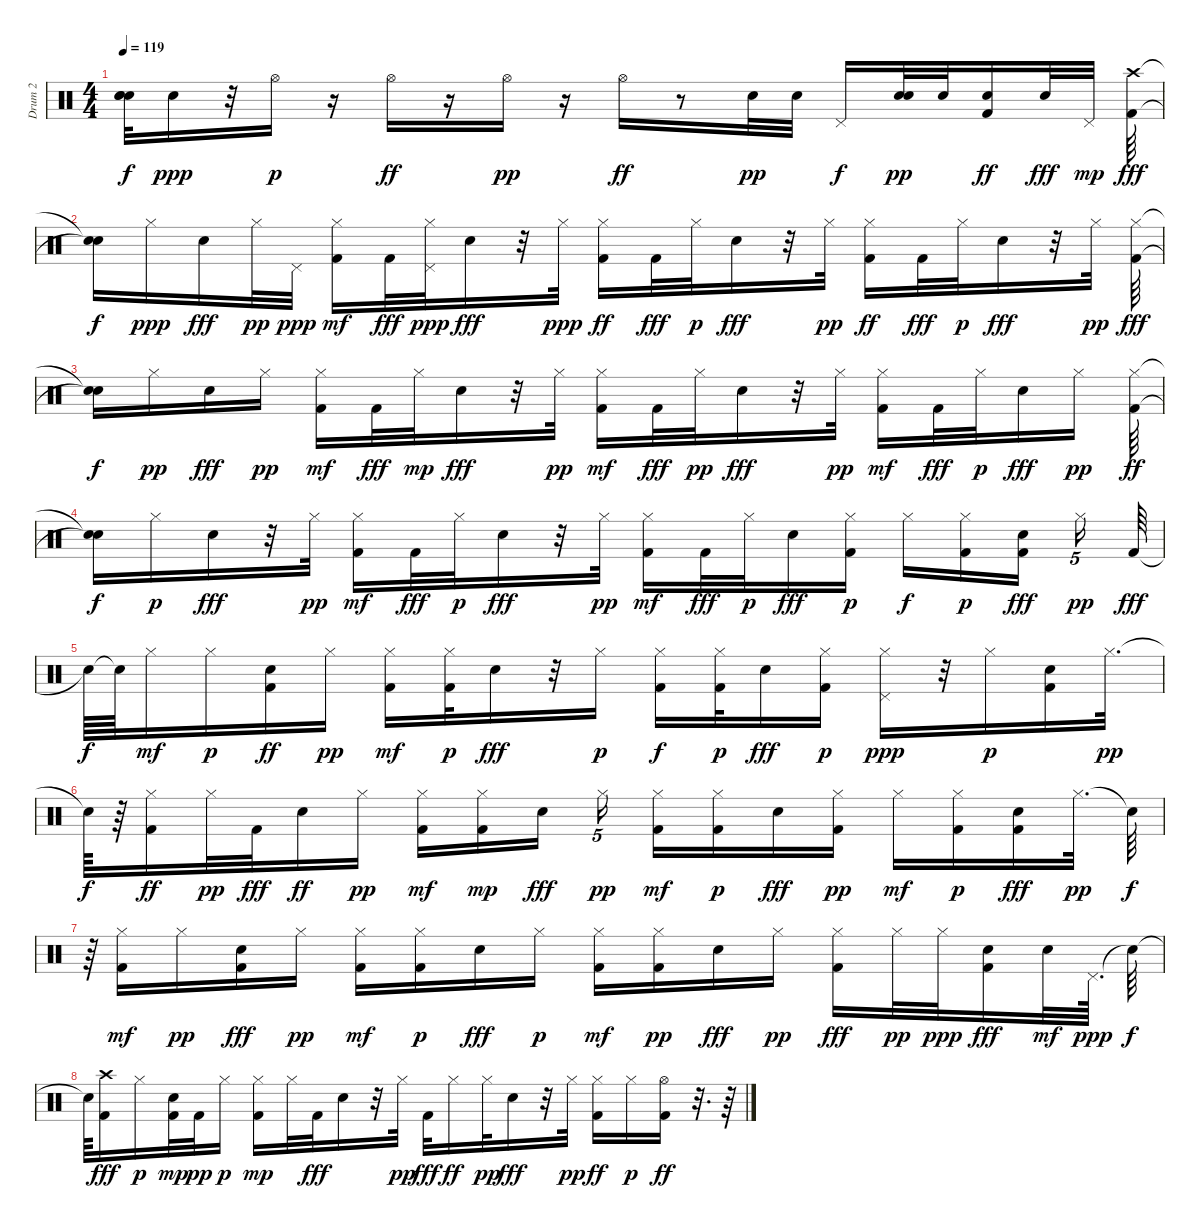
\track ("Drum 2                          " "Drum 2    ") {instrument percussion}
\staff {score}
\articulation defaults
\ts (4 4)
\tempo 119
\clef neutral
\ks c
("Snare (hit)"{t} "Snare (hit)"{t} "Snare (hit)"{t}).32{dy f} "Snare (hit) 2".16{dy ppp} r.32 "Hi-Hat (open)".16{dy p} r.16 "Hi-Hat (open)".16{dy ff} r.16 "Hi-Hat (open)".16{dy pp} r.16 "Hi-Hat (open)".16{dy ff} r.8 "Snare (hit) 2".32{dy pp} "Snare (hit) 2".32 "Pedal Hi-Hat (hit)".16{dy f} ("Snare (hit) 2" "Snare (hit) 2").32{dy pp} "Snare (hit) 2".32 ("Kick (hit) 2" "Snare (hit) 2").16{dy ff} "Snare (hit) 2".32{dy fff} "Pedal Hi-Hat (hit)".32{dy mp} ("Kick (hit) 2" "Crash high (hit)").64{dy fff} |
("Snare (hit)"{t} "Snare (hit)"{t}).16{dy f} "Hi-Hat (closed)".16{dy ppp} "Snare (hit) 2".16{dy fff} "Hi-Hat (closed)".32{dy pp} "Pedal Hi-Hat (hit)".32{dy ppp} ("Kick (hit) 2" "Hi-Hat (closed)").16{dy mf} "Kick (hit) 2".32{dy fff} ("Hi-Hat (closed)" "Pedal Hi-Hat (hit)").32{dy ppp} "Snare (hit) 2".16{dy fff} r.32 "Hi-Hat (closed)".32{dy ppp} ("Kick (hit) 2" "Hi-Hat (closed)").16{dy ff} "Kick (hit) 2".32{dy fff} "Hi-Hat (closed)".32{dy p} "Snare (hit) 2".16{dy fff} r.32 "Hi-Hat (closed)".32{dy pp} ("Kick (hit) 2" "Hi-Hat (closed)").16{dy ff} "Kick (hit) 2".32{dy fff} "Hi-Hat (closed)".32{dy p} "Snare (hit) 2".16{dy fff} r.32 "Hi-Hat (closed)".32{dy pp} ("Kick (hit) 2" "Hi-Hat (closed)").64{dy fff} |
("Snare (hit)"{t} "Snare (hit)"{t}).16{dy f} "Hi-Hat (closed)".16{dy pp} "Snare (hit) 2".16{dy fff} "Hi-Hat (closed)".16{dy pp} ("Kick (hit) 2" "Hi-Hat (closed)").16{dy mf} "Kick (hit) 2".32{dy fff} "Hi-Hat (closed)".32{dy mp} "Snare (hit) 2".16{dy fff} r.32 "Hi-Hat (closed)".32{dy pp} ("Kick (hit) 2" "Hi-Hat (closed)").16{dy mf} "Kick (hit) 2".32{dy fff} "Hi-Hat (closed)".32{dy pp} "Snare (hit) 2".16{dy fff} r.32 "Hi-Hat (closed)".32{dy pp} ("Kick (hit) 2" "Hi-Hat (closed)").16{dy mf} "Kick (hit) 2".32{dy fff} "Hi-Hat (closed)".32{dy p} "Snare (hit) 2".16{dy fff} "Hi-Hat (closed)".16{dy pp} ("Kick (hit) 2" "Hi-Hat (closed)").64{dy ff} |
("Snare (hit)"{t} "Snare (hit)"{t}).16{dy f} "Hi-Hat (closed)".16{dy p} "Snare (hit) 2".16{dy fff} r.32 "Hi-Hat (closed)".32{dy pp} ("Kick (hit) 2" "Hi-Hat (closed)").16{dy mf} "Kick (hit) 2".32{dy fff} "Hi-Hat (closed)".32{dy p} "Snare (hit) 2".16{dy fff} r.32 "Hi-Hat (closed)".32{dy pp} ("Kick (hit) 2" "Hi-Hat (closed)").16{dy mf} "Kick (hit) 2".32{dy fff} "Hi-Hat (closed)".32{dy p} "Snare (hit) 2".16{dy fff} ("Kick (hit) 2" "Hi-Hat (closed)").16{dy p} "Hi-Hat (closed)".16{dy f} ("Kick (hit) 2" "Hi-Hat (closed)").16{dy p} ("Kick (hit) 2" "Snare (hit) 2").16{dy fff beam splitsecondary} "Hi-Hat (closed)".16{tu (5 4) dy pp} "Kick (hit) 2".64{dy fff} |
"Snare (hit)"{t}.64{dy f} "Snare (hit)"{t}.64 "Hi-Hat (closed)".16{dy mf} "Hi-Hat (closed)".16{dy p} ("Kick (hit) 2" "Snare (hit) 2").16{dy ff} "Hi-Hat (closed)".16{dy pp} ("Kick (hit) 2" "Hi-Hat (closed)").16{dy mf} ("Kick (hit) 2" "Hi-Hat (closed)").32{dy p} "Snare (hit) 2".16{dy fff} r.32 "Hi-Hat (closed)".16{dy p} ("Kick (hit) 2" "Hi-Hat (closed)").16{dy f} ("Kick (hit) 2" "Hi-Hat (closed)").32{dy p} "Snare (hit) 2".16{dy fff} ("Kick (hit) 2" "Hi-Hat (closed)").16{dy p} ("Pedal Hi-Hat (hit)" "Hi-Hat (closed)").16{dy ppp} r.32 "Hi-Hat (closed)".16{dy p} ("Snare (hit) 2" "Kick (hit) 2").16 "Hi-Hat (closed)".32{d dy pp} |
"Snare (hit)"{t}.64{dy f} r.64 ("Hi-Hat (closed)" "Kick (hit) 2").16{dy ff} "Hi-Hat (closed)".32{dy pp} "Kick (hit) 2".32{dy fff} "Snare (hit) 2".16{dy ff} "Hi-Hat (closed)".16{dy pp} ("Kick (hit) 2" "Hi-Hat (closed)").16{dy mf} ("Kick (hit) 2" "Hi-Hat (closed)").16{dy mp} "Snare (hit) 2".16{dy fff beam splitsecondary} "Hi-Hat (closed)".16{tu (5 4) dy pp} ("Kick (hit) 2" "Hi-Hat (closed)").16{dy mf} ("Kick (hit) 2" "Hi-Hat (closed)").16{dy p} "Snare (hit) 2".16{dy fff} ("Kick (hit) 2" "Hi-Hat (closed)").16{dy pp} "Hi-Hat (closed)".16{dy mf} ("Kick (hit) 2" "Hi-Hat (closed)").16{dy p} ("Kick (hit) 2" "Snare (hit) 2").16{dy fff} "Hi-Hat (closed)".32{d dy pp} "Snare (hit)"{t}.64{dy f} |
r.64 ("Kick (hit) 2" "Hi-Hat (closed)").16{dy mf} "Hi-Hat (closed)".16{dy pp} ("Kick (hit) 2" "Snare (hit) 2").16{dy fff} "Hi-Hat (closed)".16{dy pp} ("Kick (hit) 2" "Hi-Hat (closed)").16{dy mf} ("Kick (hit) 2" "Hi-Hat (closed)").16{dy p} "Snare (hit) 2".16{dy fff} "Hi-Hat (closed)".16{dy p} ("Kick (hit) 2" "Hi-Hat (closed)").16{dy mf} ("Kick (hit) 2" "Hi-Hat (closed)").16{dy pp} "Snare (hit) 2".16{dy fff} "Hi-Hat (closed)".16{dy pp} ("Kick (hit) 2" "Hi-Hat (closed)").16{dy fff} "Hi-Hat (closed)".32{dy pp} "Hi-Hat (closed)".32{dy ppp} ("Kick (hit) 2" "Snare (hit) 2").16{dy fff} "Electric Snare (hit)".32{dy mf} "Pedal Hi-Hat (hit)".64{d dy ppp} "Snare (hit)"{t}.64{dy f} |
"Snare (hit)"{t}.64 ("Kick (hit) 2" "Crash high (hit)").16{dy fff} "Hi-Hat (closed)".16{dy p} ("Snare (hit) 2" "Kick (hit) 2").32{dy mp} "Kick (hit) 2".32{dy pp} "Hi-Hat (closed)".16{dy p} ("Kick (hit) 2" "Hi-Hat (closed)").16{dy mp} "Hi-Hat (closed)".32 "Kick (hit) 2".32{dy fff} "Snare (hit) 2".16 r.32 "Hi-Hat (closed)".32{dy pp} "Kick (hit) 2".32{dy fff} "Hi-Hat (closed)".16{dy ff} "Hi-Hat (closed)".32{dy pp} "Snare (hit) 2".16{dy fff} r.32 "Hi-Hat (closed)".32{dy pp} ("Kick (hit) 2" "Hi-Hat (closed)").16{dy ff} "Hi-Hat (closed)".16{dy p} ("Kick (hit) 2" "Hi-Hat (open)").16{dy ff} r.32{d} r.64
